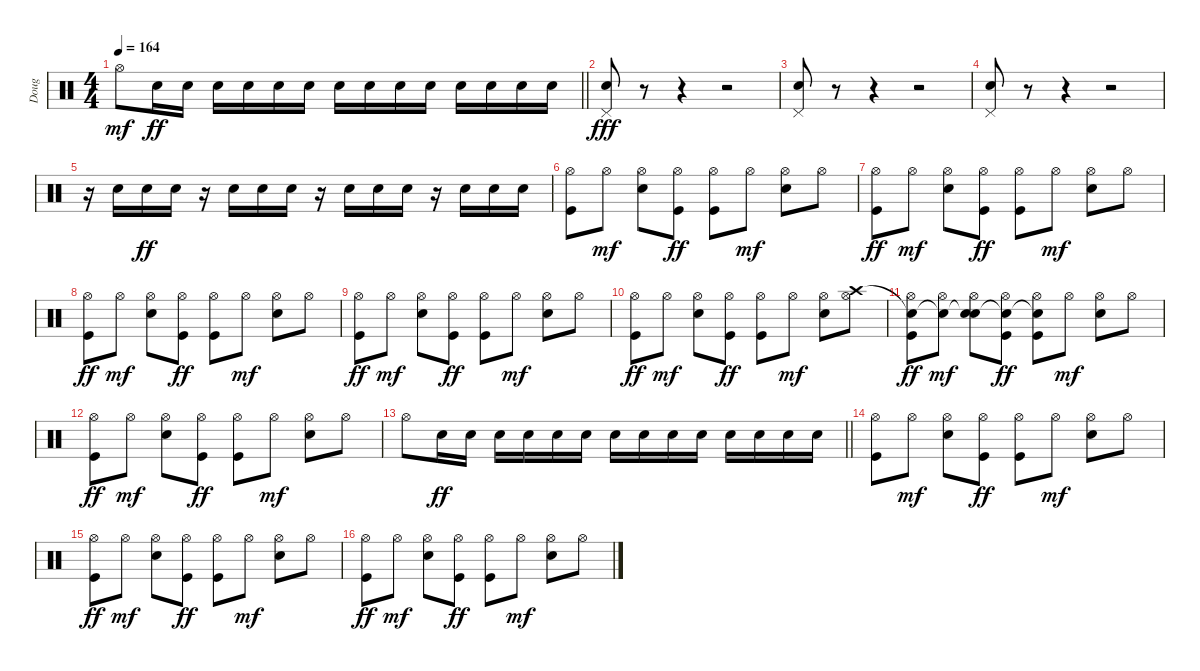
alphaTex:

\track ("Doug" "Doug") {instrument percussion}
\staff {score}
\articulation defaults
\ts (4 4)
\tempo 164
\clef neutral
\barLineRight lightlight
\ks c "Hi-Hat (open)".8{dy mf} "Electric Snare (hit)".16{dy ff} "Electric Snare (hit)".16 "Electric Snare (hit)".16 "Electric Snare (hit)".16 "Electric Snare (hit)".16 "Electric Snare (hit)".16 "Electric Snare (hit)".16 "Electric Snare (hit)".16 "Electric Snare (hit)".16 "Electric Snare (hit)".16 "Electric Snare (hit)".16 "Electric Snare (hit)".16 "Electric Snare (hit)".16 "Electric Snare (hit)".16
|
("Pedal Hi-Hat (hit)" "Electric Snare (hit)").8{dy fff} r.8 r.4 r.2 |
("Pedal Hi-Hat (hit)" "Electric Snare (hit)").8 r.8 r.4 r.2 |
("Pedal Hi-Hat (hit)" "Electric Snare (hit)").8 r.8 r.4 r.2 |
r.16 "Electric Snare (hit)".16 "Electric Snare (hit)".16{dy ff} "Electric Snare (hit)".16 r.16 "Electric Snare (hit)".16 "Electric Snare (hit)".16 "Electric Snare (hit)".16 r.16 "Electric Snare (hit)".16 "Electric Snare (hit)".16 "Electric Snare (hit)".16 r.16 "Electric Snare (hit)".16 "Electric Snare (hit)".16 "Electric Snare (hit)".16 |
("Hi-Hat (open)" "Kick (hit)").8 "Hi-Hat (open)".8{dy mf} ("Hi-Hat (open)" "Electric Snare (hit)").8 ("Hi-Hat (open)" "Kick (hit)").8{dy ff} ("Hi-Hat (open)" "Kick (hit)").8 "Hi-Hat (open)".8{dy mf} ("Hi-Hat (open)" "Electric Snare (hit)").8 "Hi-Hat (open)".8 |
("Hi-Hat (open)" "Kick (hit)").8{dy ff} "Hi-Hat (open)".8{dy mf} ("Hi-Hat (open)" "Electric Snare (hit)").8 ("Hi-Hat (open)" "Kick (hit)").8{dy ff} ("Hi-Hat (open)" "Kick (hit)").8 "Hi-Hat (open)".8{dy mf} ("Hi-Hat (open)" "Electric Snare (hit)").8 "Hi-Hat (open)".8 |
("Hi-Hat (open)" "Kick (hit)").8{dy ff} "Hi-Hat (open)".8{dy mf} ("Hi-Hat (open)" "Electric Snare (hit)").8 ("Hi-Hat (open)" "Kick (hit)").8{dy ff} ("Hi-Hat (open)" "Kick (hit)").8 "Hi-Hat (open)".8{dy mf} ("Hi-Hat (open)" "Electric Snare (hit)").8 "Hi-Hat (open)".8 |
("Hi-Hat (open)" "Kick (hit)").8{dy ff} "Hi-Hat (open)".8{dy mf} ("Hi-Hat (open)" "Electric Snare (hit)").8 ("Hi-Hat (open)" "Kick (hit)").8{dy ff} ("Hi-Hat (open)" "Kick (hit)").8 "Hi-Hat (open)".8{dy mf} ("Hi-Hat (open)" "Electric Snare (hit)").8 "Hi-Hat (open)".8 |
("Hi-Hat (open)" "Kick (hit)").8{dy ff} "Hi-Hat (open)".8{dy mf} ("Hi-Hat (open)" "Electric Snare (hit)").8 ("Hi-Hat (open)" "Kick (hit)").8{dy ff} ("Hi-Hat (open)" "Kick (hit)").8 "Hi-Hat (open)".8{dy mf} ("Hi-Hat (open)" "Electric Snare (hit)").8 ("Crash high (hit)" "Hi-Hat (open)").8 |
("Snare (hit)"{t} "Hi-Hat (open)" "Kick (hit)").8{dy ff} ("Snare (hit)"{t} "Hi-Hat (open)").8{dy mf} ("Snare (hit)"{t} "Hi-Hat (open)" "Electric Snare (hit)").8 ("Snare (hit)"{t} "Hi-Hat (open)" "Kick (hit)").8{dy ff} ("Snare (hit)"{t} "Hi-Hat (open)" "Kick (hit)").8 "Hi-Hat (open)".8{dy mf} ("Hi-Hat (open)" "Electric Snare (hit)").8 "Hi-Hat (open)".8 |
("Hi-Hat (open)" "Kick (hit)").8{dy ff} "Hi-Hat (open)".8{dy mf} ("Hi-Hat (open)" "Electric Snare (hit)").8 ("Hi-Hat (open)" "Kick (hit)").8{dy ff} ("Hi-Hat (open)" "Kick (hit)").8 "Hi-Hat (open)".8{dy mf} ("Hi-Hat (open)" "Electric Snare (hit)").8 "Hi-Hat (open)".8 |
\barLineRight lightlight "Hi-Hat (open)".8 "Electric Snare (hit)".16{dy ff} "Electric Snare (hit)".16 "Electric Snare (hit)".16 "Electric Snare (hit)".16 "Electric Snare (hit)".16 "Electric Snare (hit)".16 "Electric Snare (hit)".16 "Electric Snare (hit)".16 "Electric Snare (hit)".16 "Electric Snare (hit)".16 "Electric Snare (hit)".16 "Electric Snare (hit)".16 "Electric Snare (hit)".16 "Electric Snare (hit)".16
|
("Hi-Hat (open)" "Kick (hit)").8 "Hi-Hat (open)".8{dy mf} ("Hi-Hat (open)" "Electric Snare (hit)").8 ("Hi-Hat (open)" "Kick (hit)").8{dy ff} ("Hi-Hat (open)" "Kick (hit)").8 "Hi-Hat (open)".8{dy mf} ("Hi-Hat (open)" "Electric Snare (hit)").8 "Hi-Hat (open)".8 |
("Hi-Hat (open)" "Kick (hit)").8{dy ff} "Hi-Hat (open)".8{dy mf} ("Hi-Hat (open)" "Electric Snare (hit)").8 ("Hi-Hat (open)" "Kick (hit)").8{dy ff} ("Hi-Hat (open)" "Kick (hit)").8 "Hi-Hat (open)".8{dy mf} ("Hi-Hat (open)" "Electric Snare (hit)").8 "Hi-Hat (open)".8 |
("Hi-Hat (open)" "Kick (hit)").8{dy ff} "Hi-Hat (open)".8{dy mf} ("Hi-Hat (open)" "Electric Snare (hit)").8 ("Hi-Hat (open)" "Kick (hit)").8{dy ff} ("Hi-Hat (open)" "Kick (hit)").8 "Hi-Hat (open)".8{dy mf} ("Hi-Hat (open)" "Electric Snare (hit)").8 "Hi-Hat (open)".8
